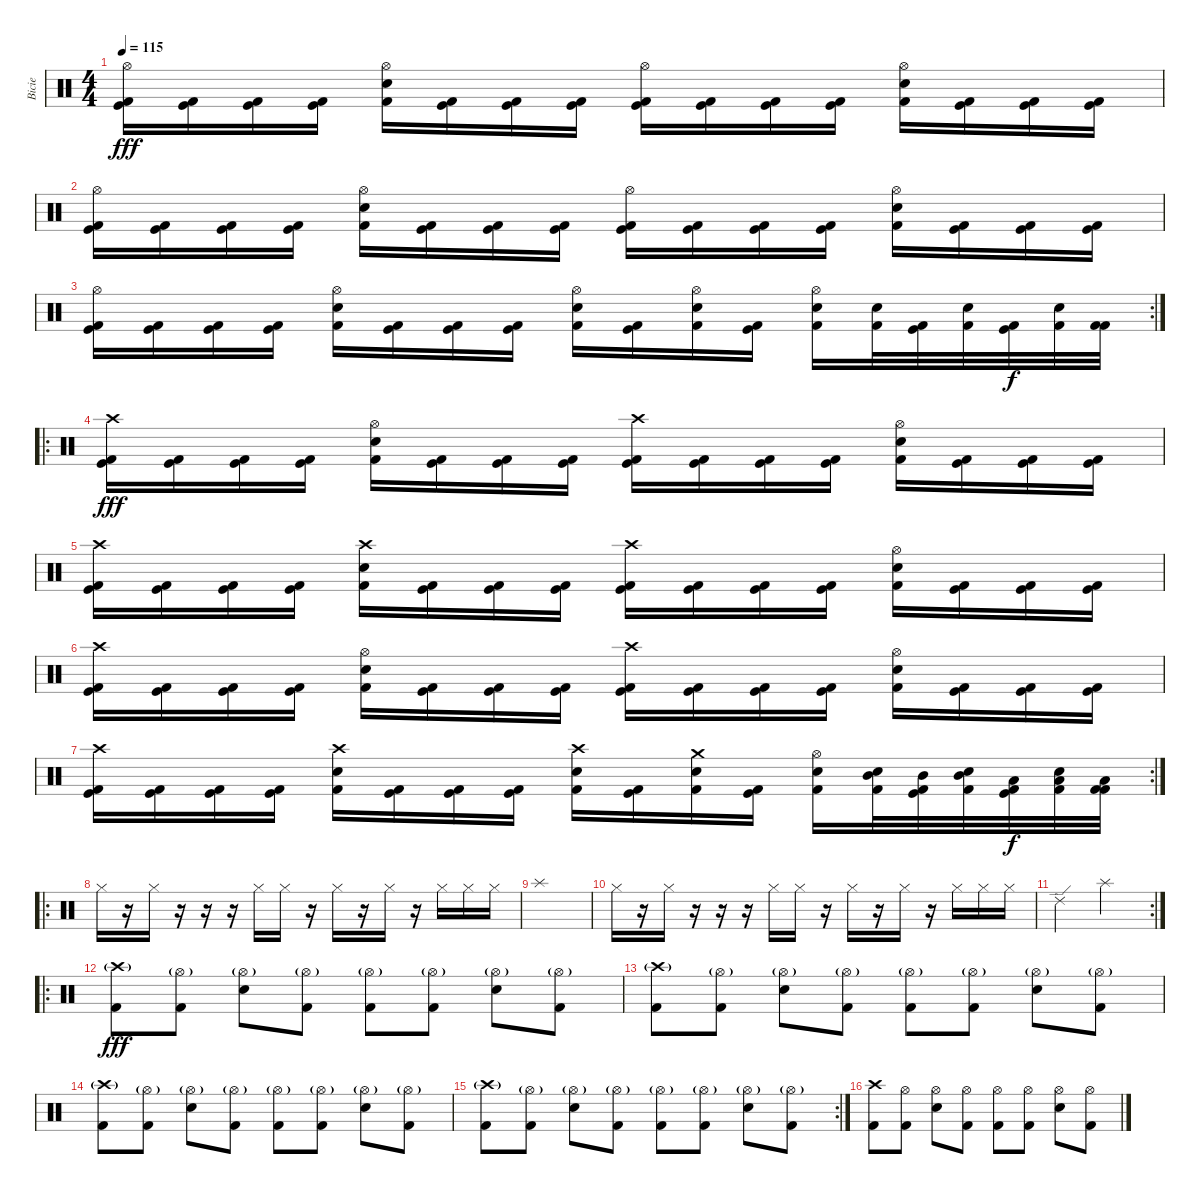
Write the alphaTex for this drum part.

\track ("Bicie" "Bicie") {instrument percussion}
\staff {score}
\articulation defaults
\ts (4 4)
\tempo 115
\clef neutral
\ks c
("Hi-Hat (open)" "Kick (hit)" "Kick (hit) 2").16{dy fff} ("Kick (hit)" "Kick (hit) 2").16 ("Kick (hit)" "Kick (hit) 2").16 ("Kick (hit)" "Kick (hit) 2").16 ("Hi-Hat (open)" "Electric Snare (hit)" "Kick (hit) 2").16 ("Kick (hit)" "Kick (hit) 2").16 ("Kick (hit)" "Kick (hit) 2").16 ("Kick (hit)" "Kick (hit) 2").16 ("Hi-Hat (open)" "Kick (hit)" "Kick (hit) 2").16 ("Kick (hit)" "Kick (hit) 2").16 ("Kick (hit)" "Kick (hit) 2").16 ("Kick (hit)" "Kick (hit) 2").16 ("Hi-Hat (open)" "Electric Snare (hit)" "Kick (hit) 2").16 ("Kick (hit)" "Kick (hit) 2").16 ("Kick (hit)" "Kick (hit) 2").16 ("Kick (hit)" "Kick (hit) 2").16 |
("Hi-Hat (open)" "Kick (hit)" "Kick (hit) 2").16 ("Kick (hit)" "Kick (hit) 2").16 ("Kick (hit)" "Kick (hit) 2").16 ("Kick (hit)" "Kick (hit) 2").16 ("Hi-Hat (open)" "Electric Snare (hit)" "Kick (hit) 2").16 ("Kick (hit)" "Kick (hit) 2").16 ("Kick (hit)" "Kick (hit) 2").16 ("Kick (hit)" "Kick (hit) 2").16 ("Hi-Hat (open)" "Kick (hit)" "Kick (hit) 2").16 ("Kick (hit)" "Kick (hit) 2").16 ("Kick (hit)" "Kick (hit) 2").16 ("Kick (hit)" "Kick (hit) 2").16 ("Hi-Hat (open)" "Electric Snare (hit)" "Kick (hit) 2").16 ("Kick (hit)" "Kick (hit) 2").16 ("Kick (hit)" "Kick (hit) 2").16 ("Kick (hit)" "Kick (hit) 2").16 |
\rc 2
("Hi-Hat (open)" "Kick (hit)" "Kick (hit) 2").16 ("Kick (hit)" "Kick (hit) 2").16 ("Kick (hit)" "Kick (hit) 2").16 ("Kick (hit)" "Kick (hit) 2").16 ("Hi-Hat (open)" "Electric Snare (hit)" "Kick (hit) 2").16 ("Kick (hit)" "Kick (hit) 2").16 ("Kick (hit)" "Kick (hit) 2").16 ("Kick (hit)" "Kick (hit) 2").16 ("Hi-Hat (open)" "Electric Snare (hit)" "Kick (hit) 2").16 ("Kick (hit)" "Kick (hit) 2").16 ("Hi-Hat (open)" "Electric Snare (hit)" "Kick (hit) 2").16 ("Kick (hit)" "Kick (hit) 2").16 ("Hi-Hat (open)" "Electric Snare (hit)" "Kick (hit) 2").16 ("Electric Snare (hit)" "Kick (hit) 2").32 ("Kick (hit)" "Kick (hit) 2").32 ("Electric Snare (hit)" "Kick (hit) 2").32 ("Kick (hit)" "Kick (hit) 2").32{dy f} ("Electric Snare (hit)" "Kick (hit) 2").32 ("Kick (hit) 2" "Kick (hit) 2").32 |
\ro
("Crash high (hit)" "Kick (hit)" "Kick (hit) 2").16{dy fff} ("Kick (hit)" "Kick (hit) 2").16 ("Kick (hit)" "Kick (hit) 2").16 ("Kick (hit)" "Kick (hit) 2").16 ("Hi-Hat (open)" "Electric Snare (hit)" "Kick (hit) 2").16 ("Kick (hit)" "Kick (hit) 2").16 ("Kick (hit)" "Kick (hit) 2").16 ("Kick (hit)" "Kick (hit) 2").16 ("Crash high (hit)" "Kick (hit)" "Kick (hit) 2").16 ("Kick (hit)" "Kick (hit) 2").16 ("Kick (hit)" "Kick (hit) 2").16 ("Kick (hit)" "Kick (hit) 2").16 ("Hi-Hat (open)" "Electric Snare (hit)" "Kick (hit) 2").16 ("Kick (hit)" "Kick (hit) 2").16 ("Kick (hit)" "Kick (hit) 2").16 ("Kick (hit)" "Kick (hit) 2").16 |
("Crash high (hit)" "Kick (hit)" "Kick (hit) 2").16 ("Kick (hit)" "Kick (hit) 2").16 ("Kick (hit)" "Kick (hit) 2").16 ("Kick (hit)" "Kick (hit) 2").16 ("Crash high (hit)" "Electric Snare (hit)" "Kick (hit) 2").16 ("Kick (hit)" "Kick (hit) 2").16 ("Kick (hit)" "Kick (hit) 2").16 ("Kick (hit)" "Kick (hit) 2").16 ("Crash high (hit)" "Kick (hit)" "Kick (hit) 2").16 ("Kick (hit)" "Kick (hit) 2").16 ("Kick (hit)" "Kick (hit) 2").16 ("Kick (hit)" "Kick (hit) 2").16 ("Hi-Hat (open)" "Electric Snare (hit)" "Kick (hit) 2").16 ("Kick (hit)" "Kick (hit) 2").16 ("Kick (hit)" "Kick (hit) 2").16 ("Kick (hit)" "Kick (hit) 2").16 |
("Crash high (hit)" "Kick (hit)" "Kick (hit) 2").16 ("Kick (hit)" "Kick (hit) 2").16 ("Kick (hit)" "Kick (hit) 2").16 ("Kick (hit)" "Kick (hit) 2").16 ("Hi-Hat (open)" "Electric Snare (hit)" "Kick (hit) 2").16 ("Kick (hit)" "Kick (hit) 2").16 ("Kick (hit)" "Kick (hit) 2").16 ("Kick (hit)" "Kick (hit) 2").16 ("Crash high (hit)" "Kick (hit)" "Kick (hit) 2").16 ("Kick (hit)" "Kick (hit) 2").16 ("Kick (hit)" "Kick (hit) 2").16 ("Kick (hit)" "Kick (hit) 2").16 ("Hi-Hat (open)" "Electric Snare (hit)" "Kick (hit) 2").16 ("Kick (hit)" "Kick (hit) 2").16 ("Kick (hit)" "Kick (hit) 2").16 ("Kick (hit)" "Kick (hit) 2").16 |
\rc 2
("Crash high (hit)" "Kick (hit)" "Kick (hit) 2").16 ("Kick (hit)" "Kick (hit) 2").16 ("Kick (hit)" "Kick (hit) 2").16 ("Kick (hit)" "Kick (hit) 2").16 ("Crash high (hit)" "Electric Snare (hit)" "Kick (hit) 2").16 ("Kick (hit)" "Kick (hit) 2").16 ("Kick (hit)" "Kick (hit) 2").16 ("Kick (hit)" "Kick (hit) 2").16 ("Crash high (hit)" "Electric Snare (hit)" "Kick (hit) 2").16 ("Kick (hit)" "Kick (hit) 2").16 ("Crash medium (hit)" "Electric Snare (hit)" "Kick (hit) 2").16 ("Kick (hit)" "Kick (hit) 2").16 ("Hi-Hat (open)" "Electric Snare (hit)" "Kick (hit) 2").16 ("Mid Tom (hit)" "Electric Snare (hit)" "Kick (hit) 2").32 ("Mid Tom (hit)" "Kick (hit)" "Kick (hit) 2").32 ("Mid Tom (hit)" "Electric Snare (hit)" "Kick (hit) 2").32 ("Low Tom (hit)" "Kick (hit)" "Kick (hit) 2").32{dy f} ("Low Tom (hit)" "Electric Snare (hit)" "Kick (hit) 2").32 ("Low Tom (hit)" "Kick (hit) 2" "Kick (hit) 2").32 |
\ro "Hi-Hat (closed)".16
r.16 "Hi-Hat (closed)".16 r.16 r.16 r.16 "Hi-Hat (closed)".16 "Hi-Hat (closed)".16 r.16 "Hi-Hat (closed)".16 r.16 "Hi-Hat (closed)".16 r.16 "Hi-Hat (closed)".16 "Hi-Hat (closed)".16 "Hi-Hat (closed)".16 |
"Splash (hit)".1 |
"Hi-Hat (closed)".16 r.16 "Hi-Hat (closed)".16 r.16 r.16 r.16 "Hi-Hat (closed)".16 "Hi-Hat (closed)".16 r.16 "Hi-Hat (closed)".16 r.16 "Hi-Hat (closed)".16 r.16 "Hi-Hat (closed)".16 "Hi-Hat (closed)".16 "Hi-Hat (closed)".16 |
\rc 2 "Ride (edge) 2".2 "Splash (hit)".2
|
\ro
("Crash high (hit)"{g} "Kick (hit) 2").8{dy fff} ("Hi-Hat (open)"{g} "Kick (hit) 2").8 ("Hi-Hat (open)"{g} "Snare (hit) 2").8 ("Hi-Hat (open)"{g} "Kick (hit) 2").8 ("Hi-Hat (open)"{g} "Kick (hit) 2").8 ("Hi-Hat (open)"{g} "Kick (hit) 2").8 ("Hi-Hat (open)"{g} "Snare (hit) 2").8 ("Hi-Hat (open)"{g} "Kick (hit) 2").8 |
("Crash high (hit)"{g} "Kick (hit) 2").8 ("Hi-Hat (open)"{g} "Kick (hit) 2").8 ("Hi-Hat (open)"{g} "Snare (hit) 2").8 ("Hi-Hat (open)"{g} "Kick (hit) 2").8 ("Hi-Hat (open)"{g} "Kick (hit) 2").8 ("Hi-Hat (open)"{g} "Kick (hit) 2").8 ("Hi-Hat (open)"{g} "Snare (hit) 2").8 ("Hi-Hat (open)"{g} "Kick (hit) 2").8 |
("Crash high (hit)"{g} "Kick (hit) 2").8 ("Hi-Hat (open)"{g} "Kick (hit) 2").8 ("Hi-Hat (open)"{g} "Snare (hit) 2").8 ("Hi-Hat (open)"{g} "Kick (hit) 2").8 ("Hi-Hat (open)"{g} "Kick (hit) 2").8 ("Hi-Hat (open)"{g} "Kick (hit) 2").8 ("Hi-Hat (open)"{g} "Snare (hit) 2").8 ("Hi-Hat (open)"{g} "Kick (hit) 2").8 |
\rc 2
("Crash high (hit)"{g} "Kick (hit) 2").8 ("Hi-Hat (open)"{g} "Kick (hit) 2").8 ("Hi-Hat (open)"{g} "Snare (hit) 2").8 ("Hi-Hat (open)"{g} "Kick (hit) 2").8 ("Hi-Hat (open)"{g} "Kick (hit) 2").8 ("Hi-Hat (open)"{g} "Kick (hit) 2").8 ("Hi-Hat (open)"{g} "Snare (hit) 2").8 ("Hi-Hat (open)"{g} "Kick (hit) 2").8 |
("Crash high (hit)" "Kick (hit) 2").8 ("Hi-Hat (open)" "Kick (hit) 2").8 ("Hi-Hat (open)" "Snare (hit) 2").8 ("Hi-Hat (open)" "Kick (hit) 2").8 ("Hi-Hat (open)" "Kick (hit) 2").8 ("Hi-Hat (open)" "Kick (hit) 2").8 ("Hi-Hat (open)" "Snare (hit) 2").8 ("Hi-Hat (open)" "Kick (hit) 2").8
